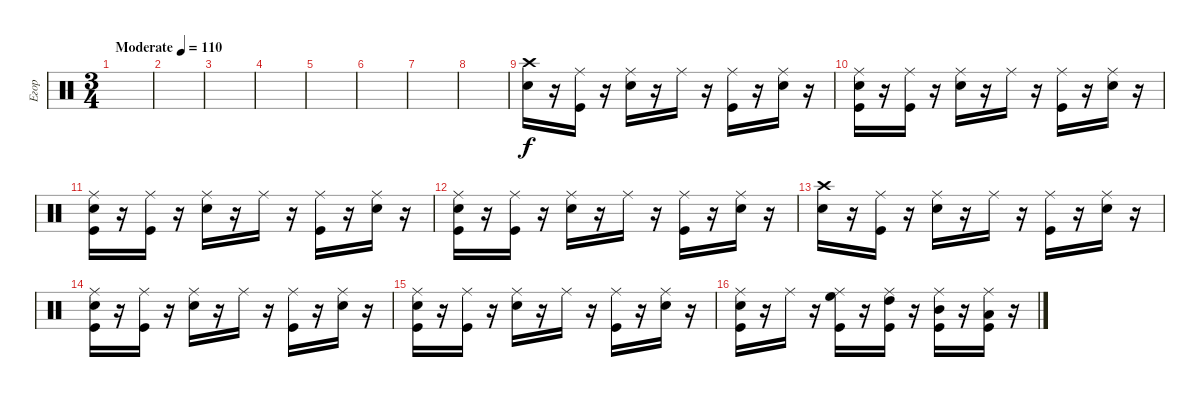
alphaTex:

\track ("Егор" "Егор") {instrument percussion}
\staff {score}
\articulation defaults
\ts (3 4)
\tempo (110 "Moderate")
\clef neutral
\ks c
|
|
|
|
|
|
|
|
("Snare (hit) 2" "Crash high (hit)").16 r.16 ("Ride (middle)" "Kick (hit)").16 r.16 ("Snare (hit) 2" "Ride (middle)").16 r.16 "Ride (middle)".16 r.16 ("Ride (middle)" "Kick (hit)").16 r.16 ("Ride (middle)" "Snare (hit) 2").16 r.16 |
("Kick (hit)" "Ride (middle)" "Snare (hit) 2").16 r.16 ("Ride (middle)" "Kick (hit)").16 r.16 ("Snare (hit) 2" "Ride (middle)").16 r.16 "Ride (middle)".16 r.16 ("Ride (middle)" "Kick (hit)").16 r.16 ("Ride (middle)" "Snare (hit) 2").16 r.16 |
("Kick (hit)" "Ride (middle)" "Snare (hit) 2").16 r.16 ("Ride (middle)" "Kick (hit)").16 r.16 ("Snare (hit) 2" "Ride (middle)").16 r.16 "Ride (middle)".16 r.16 ("Ride (middle)" "Kick (hit)").16 r.16 ("Ride (middle)" "Snare (hit) 2").16 r.16 |
("Kick (hit)" "Ride (middle)" "Snare (hit) 2").16 r.16 ("Ride (middle)" "Kick (hit)").16 r.16 ("Snare (hit) 2" "Ride (middle)").16 r.16 "Ride (middle)".16 r.16 ("Ride (middle)" "Kick (hit)").16 r.16 ("Ride (middle)" "Snare (hit) 2").16 r.16 |
("Snare (hit) 2" "Crash high (hit)").16 r.16 ("Ride (middle)" "Kick (hit)").16 r.16 ("Snare (hit) 2" "Ride (middle)").16 r.16 "Ride (middle)".16 r.16 ("Ride (middle)" "Kick (hit)").16 r.16 ("Ride (middle)" "Snare (hit) 2").16 r.16 |
("Kick (hit)" "Ride (middle)" "Snare (hit) 2").16 r.16 ("Ride (middle)" "Kick (hit)").16 r.16 ("Snare (hit) 2" "Ride (middle)").16 r.16 "Ride (middle)".16 r.16 ("Ride (middle)" "Kick (hit)").16 r.16 ("Ride (middle)" "Snare (hit) 2").16 r.16 |
("Kick (hit)" "Ride (middle)" "Snare (hit) 2").16 r.16 ("Ride (middle)" "Kick (hit)").16 r.16 ("Snare (hit) 2" "Ride (middle)").16 r.16 "Ride (middle)".16 r.16 ("Ride (middle)" "Kick (hit)").16 r.16 ("Ride (middle)" "Snare (hit) 2").16 r.16 |
("Kick (hit)" "Ride (middle)" "Snare (hit) 2").16 r.16 "Ride (middle)".16 r.16 ("High Floor Tom (hit)" "Ride (middle)" "Kick (hit)").16 r.16 ("Ride (middle)" "High Tom (hit)" "Kick (hit)").16 r.16 ("Ride (middle)" "Mid Tom (hit)" "Kick (hit)").16 r.16 ("Ride (middle)" "Low Tom (hit)" "Kick (hit)").16 r.16
